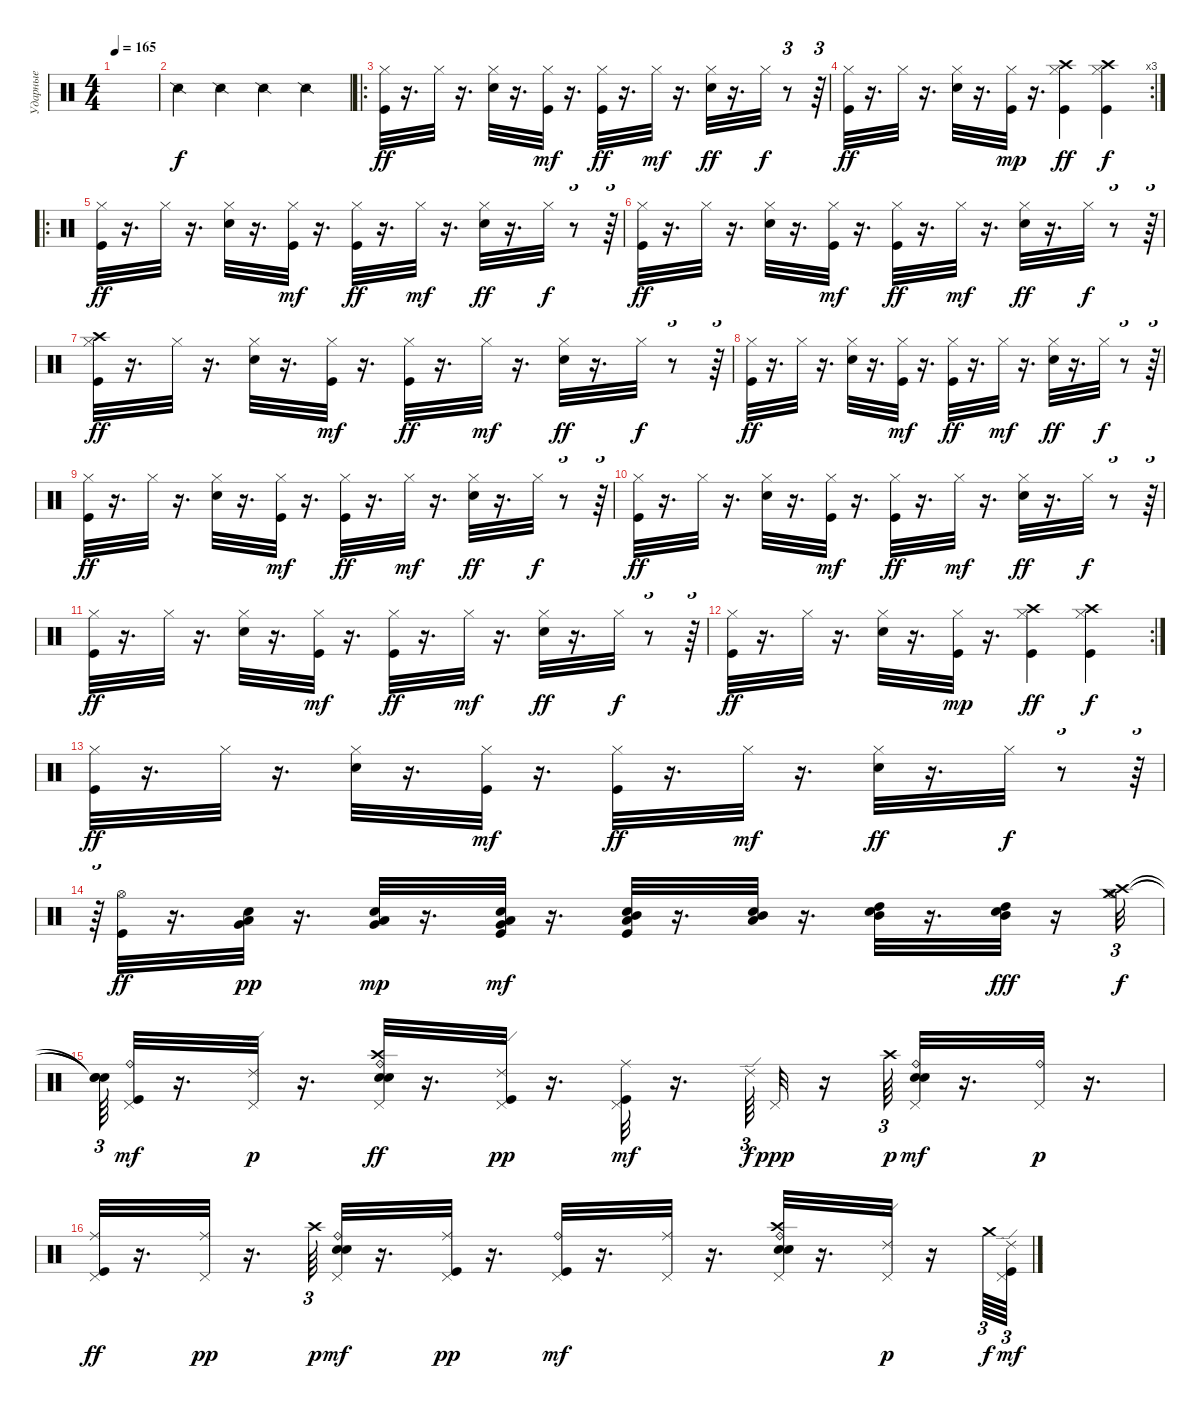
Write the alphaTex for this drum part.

\track ("Ударные" "Ударные") {instrument percussion}
\staff {score}
\articulation defaults
\ts (4 4)
\tempo 165
\clef neutral
\ks c
|
"Snare (side stick) 2".4 "Snare (side stick) 2".4 "Snare (side stick) 2".4 "Snare (side stick) 2".4 |
\ro
("Kick (hit)" "Hi-Hat (closed)").32{dy ff} r.16{d} "Hi-Hat (closed)".32 r.16{d} ("Hi-Hat (closed)" "Electric Snare (hit)").32 r.16{d} ("Kick (hit)" "Hi-Hat (closed)").32{dy mf} r.16{d} ("Kick (hit)" "Hi-Hat (closed)").32{dy ff} r.16{d} "Hi-Hat (closed)".32{dy mf} r.16{d} ("Hi-Hat (closed)" "Electric Snare (hit)").32{dy ff} r.16{d} "Hi-Hat (closed)".32{dy f} r.8{tu (3 2)} r.64{tu (3 2)} |
\rc 3
("Kick (hit)" "Hi-Hat (closed)").32{dy ff} r.16{d} "Hi-Hat (closed)".32 r.16{d} ("Hi-Hat (closed)" "Electric Snare (hit)").32 r.16{d} ("Kick (hit)" "Hi-Hat (closed)").32{dy mp} r.16{d} ("Kick (hit)" "Hi-Hat (closed)" "Crash high (hit)").4{dy ff} ("Kick (hit)" "Hi-Hat (closed)" "Crash high (hit)").4{dy f} |
\ro
("Kick (hit)" "Hi-Hat (closed)").32{dy ff} r.16{d} "Hi-Hat (closed)".32 r.16{d} ("Hi-Hat (closed)" "Electric Snare (hit)").32 r.16{d} ("Kick (hit)" "Hi-Hat (closed)").32{dy mf} r.16{d} ("Kick (hit)" "Hi-Hat (closed)").32{dy ff} r.16{d} "Hi-Hat (closed)".32{dy mf} r.16{d} ("Hi-Hat (closed)" "Electric Snare (hit)").32{dy ff} r.16{d} "Hi-Hat (closed)".32{dy f} r.8{tu (3 2)} r.64{tu (3 2)} |
("Kick (hit)" "Hi-Hat (closed)").32{dy ff} r.16{d} "Hi-Hat (closed)".32 r.16{d} ("Hi-Hat (closed)" "Electric Snare (hit)").32 r.16{d} ("Kick (hit)" "Hi-Hat (closed)").32{dy mf} r.16{d} ("Kick (hit)" "Hi-Hat (closed)").32{dy ff} r.16{d} "Hi-Hat (closed)".32{dy mf} r.16{d} ("Hi-Hat (closed)" "Electric Snare (hit)").32{dy ff} r.16{d} "Hi-Hat (closed)".32{dy f} r.8{tu (3 2)} r.64{tu (3 2)} |
("Kick (hit)" "Hi-Hat (closed)" "Crash high (hit)").32{dy ff} r.16{d} "Hi-Hat (closed)".32 r.16{d} ("Hi-Hat (closed)" "Electric Snare (hit)").32 r.16{d} ("Kick (hit)" "Hi-Hat (closed)").32{dy mf} r.16{d} ("Kick (hit)" "Hi-Hat (closed)").32{dy ff} r.16{d} "Hi-Hat (closed)".32{dy mf} r.16{d} ("Hi-Hat (closed)" "Electric Snare (hit)").32{dy ff} r.16{d} "Hi-Hat (closed)".32{dy f} r.8{tu (3 2)} r.64{tu (3 2)} |
("Kick (hit)" "Hi-Hat (closed)").32{dy ff} r.16{d} "Hi-Hat (closed)".32 r.16{d} ("Hi-Hat (closed)" "Electric Snare (hit)").32 r.16{d} ("Kick (hit)" "Hi-Hat (closed)").32{dy mf} r.16{d} ("Kick (hit)" "Hi-Hat (closed)").32{dy ff} r.16{d} "Hi-Hat (closed)".32{dy mf} r.16{d} ("Hi-Hat (closed)" "Electric Snare (hit)").32{dy ff} r.16{d} "Hi-Hat (closed)".32{dy f} r.8{tu (3 2)} r.64{tu (3 2)} |
("Kick (hit)" "Hi-Hat (closed)").32{dy ff} r.16{d} "Hi-Hat (closed)".32 r.16{d} ("Hi-Hat (closed)" "Electric Snare (hit)").32 r.16{d} ("Kick (hit)" "Hi-Hat (closed)").32{dy mf} r.16{d} ("Kick (hit)" "Hi-Hat (closed)").32{dy ff} r.16{d} "Hi-Hat (closed)".32{dy mf} r.16{d} ("Hi-Hat (closed)" "Electric Snare (hit)").32{dy ff} r.16{d} "Hi-Hat (closed)".32{dy f} r.8{tu (3 2)} r.64{tu (3 2)} |
("Kick (hit)" "Hi-Hat (closed)").32{dy ff} r.16{d} "Hi-Hat (closed)".32 r.16{d} ("Hi-Hat (closed)" "Electric Snare (hit)").32 r.16{d} ("Kick (hit)" "Hi-Hat (closed)").32{dy mf} r.16{d} ("Kick (hit)" "Hi-Hat (closed)").32{dy ff} r.16{d} "Hi-Hat (closed)".32{dy mf} r.16{d} ("Hi-Hat (closed)" "Electric Snare (hit)").32{dy ff} r.16{d} "Hi-Hat (closed)".32{dy f} r.8{tu (3 2)} r.64{tu (3 2)} |
("Kick (hit)" "Hi-Hat (closed)").32{dy ff} r.16{d} "Hi-Hat (closed)".32 r.16{d} ("Hi-Hat (closed)" "Electric Snare (hit)").32 r.16{d} ("Kick (hit)" "Hi-Hat (closed)").32{dy mf} r.16{d} ("Kick (hit)" "Hi-Hat (closed)").32{dy ff} r.16{d} "Hi-Hat (closed)".32{dy mf} r.16{d} ("Hi-Hat (closed)" "Electric Snare (hit)").32{dy ff} r.16{d} "Hi-Hat (closed)".32{dy f} r.8{tu (3 2)} r.64{tu (3 2)} |
\rc 2
("Kick (hit)" "Hi-Hat (closed)").32{dy ff} r.16{d} "Hi-Hat (closed)".32 r.16{d} ("Hi-Hat (closed)" "Electric Snare (hit)").32 r.16{d} ("Kick (hit)" "Hi-Hat (closed)").32{dy mp} r.16{d} ("Kick (hit)" "Hi-Hat (closed)" "Crash high (hit)").4{dy ff} ("Kick (hit)" "Hi-Hat (closed)" "Crash high (hit)").4{dy f} |
("Kick (hit)" "Hi-Hat (closed)").32{dy ff} r.16{d} "Hi-Hat (closed)".32 r.16{d} ("Hi-Hat (closed)" "Electric Snare (hit)").32 r.16{d} ("Kick (hit)" "Hi-Hat (closed)").32{dy mf} r.16{d} ("Kick (hit)" "Hi-Hat (closed)").32{dy ff} r.16{d} "Hi-Hat (closed)".32{dy mf} r.16{d} ("Hi-Hat (closed)" "Electric Snare (hit)").32{dy ff} r.16{d} "Hi-Hat (closed)".32{dy f} r.8{tu (3 2)} r.64{tu (3 2)} |
r.64{tu (3 2)} ("Kick (hit)" "Hi-Hat (open)").32{dy ff} r.16{d} ("Electric Snare (hit)" "Low Tom (hit)" "Very Low Tom (hit)").32{dy pp} r.16{d} ("Electric Snare (hit)" "Low Tom (hit)" "Very Low Tom (hit)").32{dy mp} r.16{d} ("Kick (hit)" "Electric Snare (hit)" "Low Tom (hit)" "Very Low Tom (hit)").32{dy mf} r.16{d} ("Kick (hit)" "Electric Snare (hit)" "Mid Tom (hit)" "Low Tom (hit)").32 r.16{d} ("Electric Snare (hit)" "Mid Tom (hit)" "Low Tom (hit)").32 r.16{d} ("Electric Snare (hit)" "High Tom (hit)" "Mid Tom (hit)").32 r.16{d} ("Electric Snare (hit)" "High Tom (hit)" "Mid Tom (hit)").32{dy fff} r.16 ("Crash high (hit)" "Crash medium (hit)" "Hi-Hat (open)").32{tu (3 2) dy f} |
("Snare (hit)"{t} "Snare (hit)"{t} "Snare (hit)"{t}).64{tu (3 2)} ("Kick (hit)" "Ride (bell)" "Pedal Hi-Hat (hit)").32{dy mf} r.16{d} ("Ride (edge) 2" "Pedal Hi-Hat (hit)").32{dy p} r.16{d} ("Electric Snare (hit)" "Crash high (hit)" "Snare (hit) 2" "Ride (bell)" "Pedal Hi-Hat (hit)").32{dy ff} r.16{d} ("Kick (hit)" "Ride (edge) 2" "Pedal Hi-Hat (hit)").32{dy pp} r.16{d} ("Kick (hit)" "Ride (middle)" "Pedal Hi-Hat (hit)").32{dy mf} r.16{d} "Ride (edge) 2".64{tu (3 2) dy f} "Pedal Hi-Hat (hit)".32{dy ppp} r.16 "Crash high (hit)".64{tu (3 2) dy p} ("Electric Snare (hit)" "Snare (hit) 2" "Ride (bell)" "Pedal Hi-Hat (hit)").32{dy mf} r.16{d} ("Ride (bell)" "Pedal Hi-Hat (hit)").32{dy p} r.16{d} |
("Kick (hit)" "Ride (middle)" "Pedal Hi-Hat (hit)").32{dy ff} r.16{d} ("Ride (middle)" "Pedal Hi-Hat (hit)").32{dy pp} r.16{d} "Crash high (hit)".64{tu (3 2) dy p} ("Electric Snare (hit)" "Snare (hit) 2" "Ride (bell)" "Pedal Hi-Hat (hit)").32{dy mf} r.16{d} ("Kick (hit)" "Ride (middle)" "Pedal Hi-Hat (hit)").32{dy pp} r.16{d} ("Kick (hit)" "Ride (bell)" "Pedal Hi-Hat (hit)").32{dy mf} r.16{d} ("Pedal Hi-Hat (hit)" "Ride (middle)").32 r.16{d} ("Electric Snare (hit)" "Crash high (hit)" "Snare (hit) 2" "Ride (bell)" "Pedal Hi-Hat (hit)").32 r.16{d} ("Ride (edge) 2" "Pedal Hi-Hat (hit)").32{dy p} r.16 "Crash medium (hit)".64{tu (3 2) dy f} ("Kick (hit)" "Ride (edge) 2" "Pedal Hi-Hat (hit)").64{tu (3 2) dy mf}
